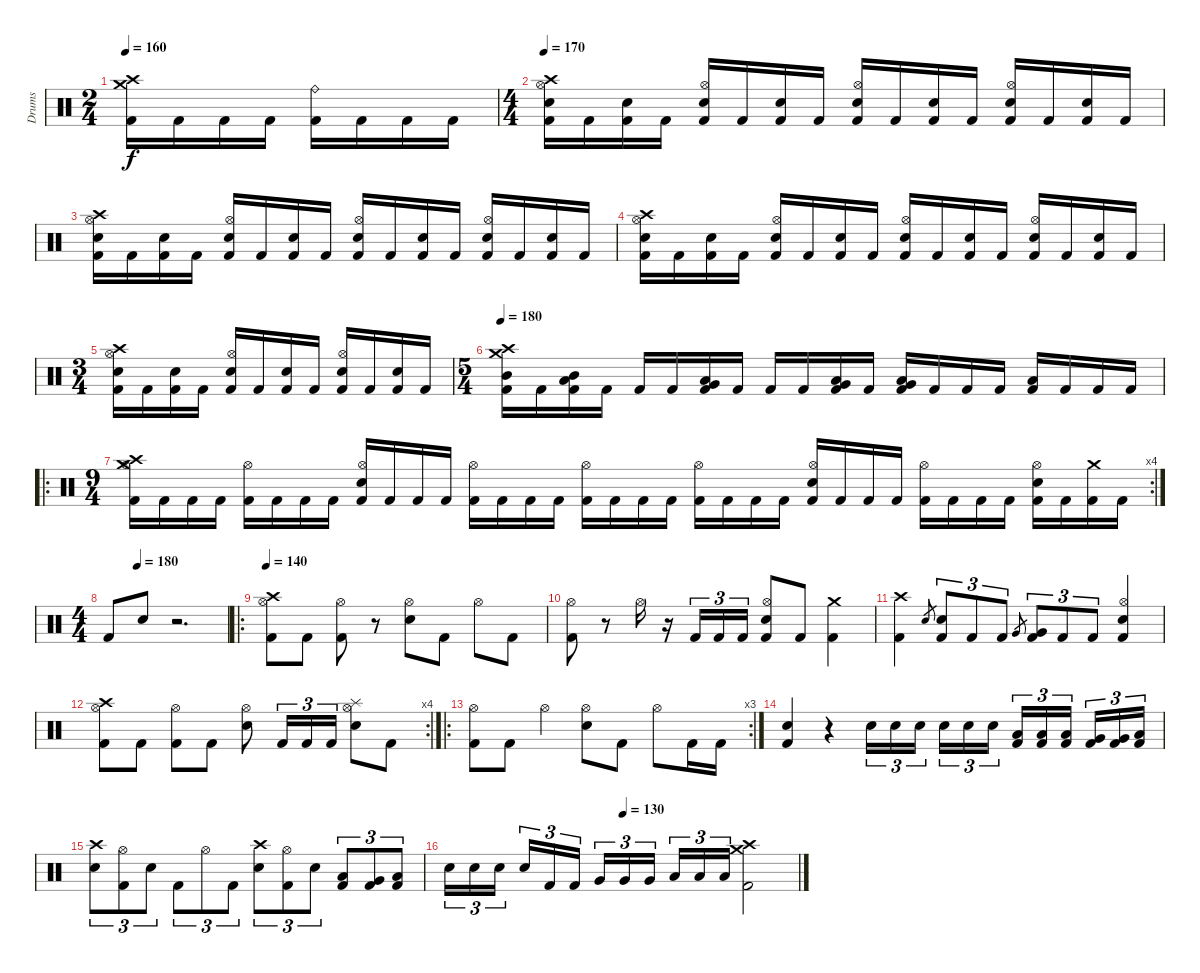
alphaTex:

\track ("Drums" "Drums") {instrument percussion}
\staff {score}
\articulation defaults
\ts (2 4)
\tempo 160
\clef neutral
\ks c
("Crash high (hit)" "Crash medium (hit)" "Kick (hit) 2").16{dy f} "Kick (hit) 2".16 "Kick (hit) 2".16 "Kick (hit) 2".16 ("Ride (bell)" "Kick (hit) 2").16 "Kick (hit) 2".16 "Kick (hit) 2".16 "Kick (hit) 2".16 |
\ts (4 4)
\tempo 170
("Crash high (hit)" "Hi-Hat (open)" "Snare (hit) 2" "Kick (hit) 2").16 "Kick (hit) 2".16 ("Snare (hit) 2" "Kick (hit) 2").16 "Kick (hit) 2".16 ("Hi-Hat (open)" "Snare (hit) 2" "Kick (hit) 2").16 "Kick (hit) 2".16 ("Snare (hit) 2" "Kick (hit) 2").16 "Kick (hit) 2".16 ("Hi-Hat (open)" "Snare (hit) 2" "Kick (hit) 2").16 "Kick (hit) 2".16 ("Snare (hit) 2" "Kick (hit) 2").16 "Kick (hit) 2".16 ("Hi-Hat (open)" "Snare (hit) 2" "Kick (hit) 2").16 "Kick (hit) 2".16 ("Snare (hit) 2" "Kick (hit) 2").16 "Kick (hit) 2".16 |
("Crash high (hit)" "Hi-Hat (open)" "Snare (hit) 2" "Kick (hit) 2").16 "Kick (hit) 2".16 ("Snare (hit) 2" "Kick (hit) 2").16 "Kick (hit) 2".16 ("Hi-Hat (open)" "Snare (hit) 2" "Kick (hit) 2").16 "Kick (hit) 2".16 ("Snare (hit) 2" "Kick (hit) 2").16 "Kick (hit) 2".16 ("Hi-Hat (open)" "Snare (hit) 2" "Kick (hit) 2").16 "Kick (hit) 2".16 ("Snare (hit) 2" "Kick (hit) 2").16 "Kick (hit) 2".16 ("Hi-Hat (open)" "Snare (hit) 2" "Kick (hit) 2").16 "Kick (hit) 2".16 ("Snare (hit) 2" "Kick (hit) 2").16 "Kick (hit) 2".16 |
("Crash high (hit)" "Hi-Hat (open)" "Snare (hit) 2" "Kick (hit) 2").16 "Kick (hit) 2".16 ("Snare (hit) 2" "Kick (hit) 2").16 "Kick (hit) 2".16 ("Hi-Hat (open)" "Snare (hit) 2" "Kick (hit) 2").16 "Kick (hit) 2".16 ("Snare (hit) 2" "Kick (hit) 2").16 "Kick (hit) 2".16 ("Hi-Hat (open)" "Snare (hit) 2" "Kick (hit) 2").16 "Kick (hit) 2".16 ("Snare (hit) 2" "Kick (hit) 2").16 "Kick (hit) 2".16 ("Hi-Hat (open)" "Snare (hit) 2" "Kick (hit) 2").16 "Kick (hit) 2".16 ("Snare (hit) 2" "Kick (hit) 2").16 "Kick (hit) 2".16 |
\ts (3 4)
("Crash high (hit)" "Hi-Hat (open)" "Snare (hit) 2" "Kick (hit) 2").16 "Kick (hit) 2".16 ("Snare (hit) 2" "Kick (hit) 2").16 "Kick (hit) 2".16 ("Hi-Hat (open)" "Snare (hit) 2" "Kick (hit) 2").16 "Kick (hit) 2".16 ("Snare (hit) 2" "Kick (hit) 2").16 "Kick (hit) 2".16 ("Hi-Hat (open)" "Snare (hit) 2" "Kick (hit) 2").16 "Kick (hit) 2".16 ("Snare (hit) 2" "Kick (hit) 2").16 "Kick (hit) 2".16 |
\ts (5 4)
\tempo 180
("Crash medium (hit)" "Crash high (hit)" "Mid Tom (hit)" "Kick (hit) 2").16 "Kick (hit) 2".16 ("Mid Tom (hit)" "Low Tom (hit)" "Kick (hit) 2").16 "Kick (hit) 2".16 "Kick (hit) 2".16 "Kick (hit) 2".16 ("Low Tom (hit)" "Very Low Tom (hit)" "Kick (hit) 2").16 "Kick (hit) 2".16 "Kick (hit) 2".16 "Kick (hit) 2".16 ("Low Tom (hit)" "Very Low Tom (hit)" "Kick (hit) 2").16 "Kick (hit) 2".16 ("Very Low Tom (hit)" "Low Floor Tom (hit)" "Kick (hit) 2").16 "Kick (hit) 2".16 "Kick (hit) 2".16 "Kick (hit) 2".16 ("Low Floor Tom (hit)" "Kick (hit) 2").16 "Kick (hit) 2".16 "Kick (hit) 2".16 "Kick (hit) 2".16 |
\ro
\rc 4
\ts (9 4)
("Crash medium (hit)" "Crash high (hit)" "Hi-Hat (open)" "Kick (hit) 2").16 "Kick (hit) 2".16 "Kick (hit) 2".16 "Kick (hit) 2".16 ("Hi-Hat (open)" "Kick (hit) 2").16 "Kick (hit) 2".16 "Kick (hit) 2".16 "Kick (hit) 2".16 ("Hi-Hat (open)" "Snare (hit) 2" "Kick (hit) 2").16 "Kick (hit) 2".16 "Kick (hit) 2".16 "Kick (hit) 2".16 ("Hi-Hat (open)" "Kick (hit) 2").16 "Kick (hit) 2".16 "Kick (hit) 2".16 "Kick (hit) 2".16 ("Hi-Hat (open)" "Kick (hit) 2").16 "Kick (hit) 2".16 "Kick (hit) 2".16 "Kick (hit) 2".16 ("Hi-Hat (open)" "Kick (hit) 2").16 "Kick (hit) 2".16 "Kick (hit) 2".16 "Kick (hit) 2".16 ("Hi-Hat (open)" "Snare (hit) 2" "Kick (hit) 2").16 "Kick (hit) 2".16 "Kick (hit) 2".16 "Kick (hit) 2".16 ("Hi-Hat (open)" "Kick (hit) 2").16 "Kick (hit) 2".16 "Kick (hit) 2".16 "Kick (hit) 2".16 ("Hi-Hat (open)" "Snare (hit) 2" "Kick (hit) 2").16 "Kick (hit) 2".16 ("Crash medium (hit)" "Kick (hit) 2").16 "Kick (hit) 2".16 |
\ts (4 4)
\tempo (180 0.25)
"Kick (hit) 2".8 "Snare (hit) 2".8 r.2{d} |
\ro
\tempo 140
("Crash high (hit)" "Hi-Hat (open)" "Kick (hit) 2").8 "Kick (hit) 2".8 ("Hi-Hat (open)" "Kick (hit) 2").8 r.8 ("Hi-Hat (open)" "Snare (hit) 2").8 "Kick (hit) 2".8 "Hi-Hat (open)".8 "Kick (hit) 2".8 |
("Hi-Hat (open)" "Kick (hit) 2").8 r.8 "Hi-Hat (open)".16 r.16 "Kick (hit) 2".16{tu (3 2)} "Kick (hit) 2".16{tu (3 2)} "Kick (hit) 2".16{tu (3 2)} ("Hi-Hat (open)" "Snare (hit) 2" "Kick (hit) 2").8 "Kick (hit) 2".8 ("Crash medium (hit)" "Kick (hit) 2").4 |
("Crash high (hit)" "Kick (hit) 2").4 "Snare (hit) 2".8{gr} ("Snare (hit) 2" "Kick (hit) 2").8{tu (3 2)} "Kick (hit) 2".8{tu (3 2)} "Kick (hit) 2".8{tu (3 2)} "Very Low Tom (hit)".8{gr} ("Very Low Tom (hit)" "Kick (hit) 2").8{tu (3 2)} "Kick (hit) 2".8{tu (3 2)} "Kick (hit) 2".8{tu (3 2)} ("Hi-Hat (open)" "Snare (hit) 2" "Kick (hit) 2").4 |
\rc 4
("Crash high (hit)" "Hi-Hat (open)" "Kick (hit) 2").8 "Kick (hit) 2".8 ("Hi-Hat (open)" "Kick (hit) 2").8 "Kick (hit) 2".8 ("Hi-Hat (open)" "Snare (hit) 2").8 "Kick (hit) 2".16{tu (3 2)} "Kick (hit) 2".16{tu (3 2)} "Kick (hit) 2".16{tu (3 2)} ("Splash (hit)" "Hi-Hat (open)" "Snare (hit) 2").8 "Kick (hit) 2".8 |
\ro
\rc 3
("Hi-Hat (open)" "Kick (hit) 2").8 "Kick (hit) 2".8 "Hi-Hat (open)".4 ("Hi-Hat (open)" "Snare (hit) 2").8 "Kick (hit) 2".8 "Hi-Hat (open)".8 "Kick (hit) 2".16 "Kick (hit) 2".16 |
("Snare (hit) 2" "Kick (hit) 2").4 r.4 "Snare (hit) 2".16{tu (3 2)} "Snare (hit) 2".16{tu (3 2)} "Snare (hit) 2".16{tu (3 2) beam splitsecondary} "Snare (hit) 2".16{tu (3 2)} "Snare (hit) 2".16{tu (3 2)} "Snare (hit) 2".16{tu (3 2)} ("Low Tom (hit)" "Kick (hit) 2").16{tu (3 2)} ("Low Tom (hit)" "Kick (hit) 2").16{tu (3 2)} ("Low Tom (hit)" "Kick (hit) 2").16{tu (3 2) beam splitsecondary} ("Very Low Tom (hit)" "Kick (hit) 2").16{tu (3 2)} ("Very Low Tom (hit)" "Kick (hit) 2").16{tu (3 2)} ("Low Floor Tom (hit)" "Kick (hit) 2").16{tu (3 2)} |
("Crash high (hit)" "Snare (hit) 2").8{tu (3 2)} ("Hi-Hat (open)" "Kick (hit) 2").8{tu (3 2)} "Snare (hit) 2".8{tu (3 2)} "Kick (hit) 2".8{tu (3 2)} "Hi-Hat (open)".8{tu (3 2)} "Kick (hit) 2".8{tu (3 2)} ("Crash high (hit)" "Snare (hit) 2").8{tu (3 2)} ("Hi-Hat (open)" "Kick (hit) 2").8{tu (3 2)} "Snare (hit) 2".8{tu (3 2)} ("Low Tom (hit)" "Kick (hit) 2").8{tu (3 2)} ("Very Low Tom (hit)" "Kick (hit) 2").8{tu (3 2)} ("Low Floor Tom (hit)" "Kick (hit) 2").8{tu (3 2)} |
\tempo (130 0.5)
"Snare (hit) 2".16{tu (3 2)} "Snare (hit) 2".16{tu (3 2)} "Snare (hit) 2".16{tu (3 2) beam splitsecondary} "Snare (hit) 2".16{tu (3 2)} "Kick (hit) 2".16{tu (3 2)} "Kick (hit) 2".16{tu (3 2)} "Very Low Tom (hit)".16{tu (3 2)} "Very Low Tom (hit)".16{tu (3 2)} "Very Low Tom (hit)".16{tu (3 2) beam splitsecondary} "Low Floor Tom (hit)".16{tu (3 2)} "Low Floor Tom (hit)".16{tu (3 2)} "Low Floor Tom (hit)".16{tu (3 2)} ("Crash high (hit)" "Crash medium (hit)" "Kick (hit) 2").2
